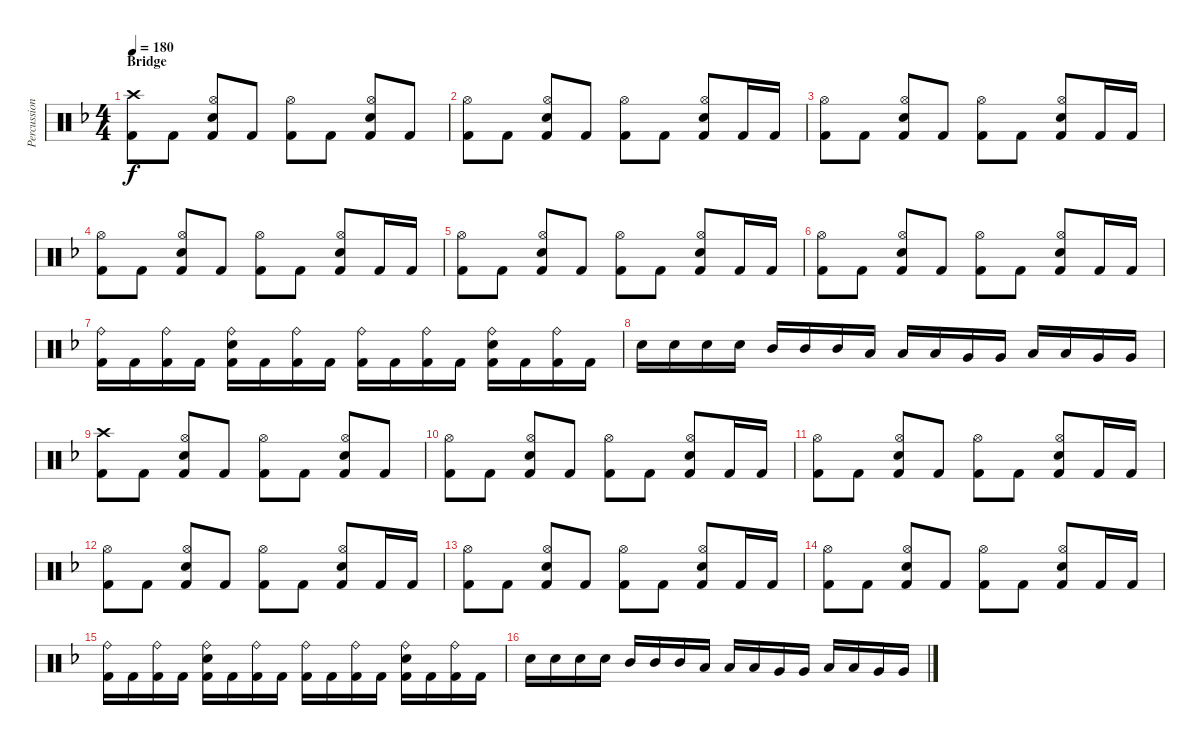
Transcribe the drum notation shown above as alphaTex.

\track ("Percussion" "Percussion") {instrument percussion}
\staff {score}
\articulation defaults
\ts (4 4)
\section ("" "Bridge")
\tempo 180
\clef neutral
\ks dminor
("Crash high (hit)" "Kick (hit) 2").8{dy f} "Kick (hit) 2".8 ("Hi-Hat (open)" "Snare (hit) 2" "Kick (hit) 2").8 "Kick (hit) 2".8 ("Hi-Hat (open)" "Kick (hit) 2").8 "Kick (hit) 2".8 ("Hi-Hat (open)" "Snare (hit) 2" "Kick (hit) 2").8 "Kick (hit) 2".8 |
("Hi-Hat (open)" "Kick (hit) 2").8 "Kick (hit) 2".8 ("Hi-Hat (open)" "Snare (hit) 2" "Kick (hit) 2").8 "Kick (hit) 2".8 ("Hi-Hat (open)" "Kick (hit) 2").8 "Kick (hit) 2".8 ("Hi-Hat (open)" "Snare (hit) 2" "Kick (hit) 2").8 "Kick (hit) 2".16 "Kick (hit) 2".16 |
("Hi-Hat (open)" "Kick (hit) 2").8 "Kick (hit) 2".8 ("Hi-Hat (open)" "Snare (hit) 2" "Kick (hit) 2").8 "Kick (hit) 2".8 ("Hi-Hat (open)" "Kick (hit) 2").8 "Kick (hit) 2".8 ("Hi-Hat (open)" "Snare (hit) 2" "Kick (hit) 2").8 "Kick (hit) 2".16 "Kick (hit) 2".16 |
("Hi-Hat (open)" "Kick (hit) 2").8 "Kick (hit) 2".8 ("Hi-Hat (open)" "Snare (hit) 2" "Kick (hit) 2").8 "Kick (hit) 2".8 ("Hi-Hat (open)" "Kick (hit) 2").8 "Kick (hit) 2".8 ("Hi-Hat (open)" "Snare (hit) 2" "Kick (hit) 2").8 "Kick (hit) 2".16 "Kick (hit) 2".16 |
("Hi-Hat (open)" "Kick (hit) 2").8 "Kick (hit) 2".8 ("Hi-Hat (open)" "Snare (hit) 2" "Kick (hit) 2").8 "Kick (hit) 2".8 ("Hi-Hat (open)" "Kick (hit) 2").8 "Kick (hit) 2".8 ("Hi-Hat (open)" "Snare (hit) 2" "Kick (hit) 2").8 "Kick (hit) 2".16 "Kick (hit) 2".16 |
("Hi-Hat (open)" "Kick (hit) 2").8 "Kick (hit) 2".8 ("Hi-Hat (open)" "Snare (hit) 2" "Kick (hit) 2").8 "Kick (hit) 2".8 ("Hi-Hat (open)" "Kick (hit) 2").8 "Kick (hit) 2".8 ("Hi-Hat (open)" "Snare (hit) 2" "Kick (hit) 2").8 "Kick (hit) 2".16 "Kick (hit) 2".16 |
("Ride (bell)" "Kick (hit) 2").16 "Kick (hit) 2".16 ("Ride (bell)" "Kick (hit) 2").16 "Kick (hit) 2".16 ("Ride (bell)" "Snare (hit) 2" "Kick (hit) 2").16 "Kick (hit) 2".16 ("Ride (bell)" "Kick (hit) 2").16 "Kick (hit) 2".16 ("Ride (bell)" "Kick (hit) 2").16 "Kick (hit) 2".16 ("Ride (bell)" "Kick (hit) 2").16 "Kick (hit) 2".16 ("Ride (bell)" "Snare (hit) 2" "Kick (hit) 2").16 "Kick (hit) 2".16 ("Ride (bell)" "Kick (hit) 2").16 "Kick (hit) 2".16 |
"Snare (hit) 2".16 "Snare (hit) 2".16 "Snare (hit) 2".16 "Snare (hit) 2".16 "Mid Tom (hit)".16 "Mid Tom (hit)".16 "Mid Tom (hit)".16 "Low Tom (hit)".16 "Low Tom (hit)".16 "Low Tom (hit)".16 "Very Low Tom (hit)".16 "Very Low Tom (hit)".16 "Low Tom (hit)".16 "Low Tom (hit)".16 "Very Low Tom (hit)".16 "Very Low Tom (hit)".16 |
("Crash high (hit)" "Kick (hit) 2").8 "Kick (hit) 2".8 ("Hi-Hat (open)" "Snare (hit) 2" "Kick (hit) 2").8 "Kick (hit) 2".8 ("Hi-Hat (open)" "Kick (hit) 2").8 "Kick (hit) 2".8 ("Hi-Hat (open)" "Snare (hit) 2" "Kick (hit) 2").8 "Kick (hit) 2".8 |
("Hi-Hat (open)" "Kick (hit) 2").8 "Kick (hit) 2".8 ("Hi-Hat (open)" "Snare (hit) 2" "Kick (hit) 2").8 "Kick (hit) 2".8 ("Hi-Hat (open)" "Kick (hit) 2").8 "Kick (hit) 2".8 ("Hi-Hat (open)" "Snare (hit) 2" "Kick (hit) 2").8 "Kick (hit) 2".16 "Kick (hit) 2".16 |
("Hi-Hat (open)" "Kick (hit) 2").8 "Kick (hit) 2".8 ("Hi-Hat (open)" "Snare (hit) 2" "Kick (hit) 2").8 "Kick (hit) 2".8 ("Hi-Hat (open)" "Kick (hit) 2").8 "Kick (hit) 2".8 ("Hi-Hat (open)" "Snare (hit) 2" "Kick (hit) 2").8 "Kick (hit) 2".16 "Kick (hit) 2".16 |
("Hi-Hat (open)" "Kick (hit) 2").8 "Kick (hit) 2".8 ("Hi-Hat (open)" "Snare (hit) 2" "Kick (hit) 2").8 "Kick (hit) 2".8 ("Hi-Hat (open)" "Kick (hit) 2").8 "Kick (hit) 2".8 ("Hi-Hat (open)" "Snare (hit) 2" "Kick (hit) 2").8 "Kick (hit) 2".16 "Kick (hit) 2".16 |
("Hi-Hat (open)" "Kick (hit) 2").8 "Kick (hit) 2".8 ("Hi-Hat (open)" "Snare (hit) 2" "Kick (hit) 2").8 "Kick (hit) 2".8 ("Hi-Hat (open)" "Kick (hit) 2").8 "Kick (hit) 2".8 ("Hi-Hat (open)" "Snare (hit) 2" "Kick (hit) 2").8 "Kick (hit) 2".16 "Kick (hit) 2".16 |
("Hi-Hat (open)" "Kick (hit) 2").8 "Kick (hit) 2".8 ("Hi-Hat (open)" "Snare (hit) 2" "Kick (hit) 2").8 "Kick (hit) 2".8 ("Hi-Hat (open)" "Kick (hit) 2").8 "Kick (hit) 2".8 ("Hi-Hat (open)" "Snare (hit) 2" "Kick (hit) 2").8 "Kick (hit) 2".16 "Kick (hit) 2".16 |
("Ride (bell)" "Kick (hit) 2").16 "Kick (hit) 2".16 ("Ride (bell)" "Kick (hit) 2").16 "Kick (hit) 2".16 ("Ride (bell)" "Snare (hit) 2" "Kick (hit) 2").16 "Kick (hit) 2".16 ("Ride (bell)" "Kick (hit) 2").16 "Kick (hit) 2".16 ("Ride (bell)" "Kick (hit) 2").16 "Kick (hit) 2".16 ("Ride (bell)" "Kick (hit) 2").16 "Kick (hit) 2".16 ("Ride (bell)" "Snare (hit) 2" "Kick (hit) 2").16 "Kick (hit) 2".16 ("Ride (bell)" "Kick (hit) 2").16 "Kick (hit) 2".16 |
"Snare (hit) 2".16 "Snare (hit) 2".16 "Snare (hit) 2".16 "Snare (hit) 2".16 "Mid Tom (hit)".16 "Mid Tom (hit)".16 "Mid Tom (hit)".16 "Low Tom (hit)".16 "Low Tom (hit)".16 "Low Tom (hit)".16 "Very Low Tom (hit)".16 "Very Low Tom (hit)".16 "Low Tom (hit)".16 "Low Tom (hit)".16 "Very Low Tom (hit)".16 "Very Low Tom (hit)".16
